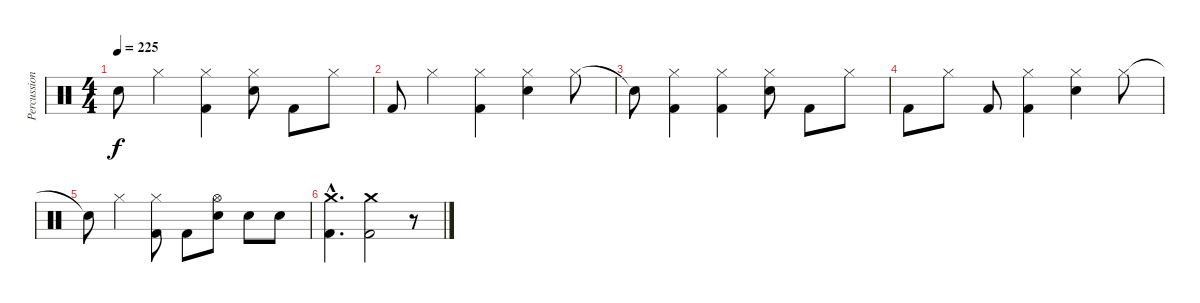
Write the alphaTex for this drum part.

\track ("Percussion" "Percussion") {instrument percussion}
\staff {score}
\articulation defaults
\ts (4 4)
\tempo 225
\clef neutral
\ks c "Snare (hit)"{t}.8{dy f} "Hi-Hat (closed)".4
("Hi-Hat (closed)" "Kick (hit) 2").4 ("Hi-Hat (closed)" "Snare (hit) 2").8 "Kick (hit) 2".8 "Hi-Hat (closed)".8 |
"Kick (hit) 2".8 "Hi-Hat (closed)".4 ("Hi-Hat (closed)" "Kick (hit) 2").4 ("Hi-Hat (closed)" "Snare (hit) 2").4 "Hi-Hat (closed)".8 |
"Snare (hit)"{t}.8 ("Hi-Hat (closed)" "Kick (hit) 2").4 ("Hi-Hat (closed)" "Kick (hit) 2").4 ("Hi-Hat (closed)" "Snare (hit) 2").8 "Kick (hit) 2".8 "Hi-Hat (closed)".8 |
"Kick (hit) 2".8 "Hi-Hat (closed)".8 "Kick (hit) 2".8 ("Hi-Hat (closed)" "Kick (hit) 2").4 ("Hi-Hat (closed)" "Snare (hit) 2").4 "Hi-Hat (closed)".8 |
"Snare (hit)"{t}.8 "Hi-Hat (closed)".4 ("Hi-Hat (closed)" "Kick (hit) 2").8 "Kick (hit) 2".8 ("Hi-Hat (open)" "Snare (hit) 2").8 "Snare (hit) 2".8 "Snare (hit) 2".8 |
("Crash medium (hit)"{hac} "Kick (hit) 2"{hac}).4{d} ("Crash medium (hit)" "Kick (hit) 2").2 r.8
